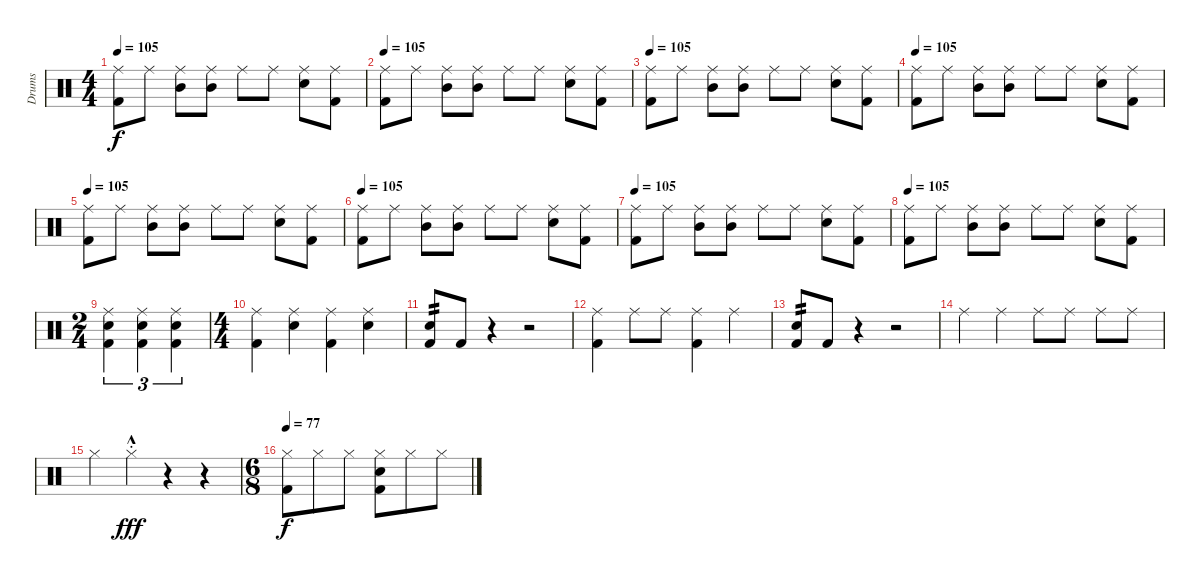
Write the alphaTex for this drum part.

\track ("Drums" "Drums") {instrument percussion}
\staff {score}
\articulation defaults
\ts (4 4)
\tempo 105
\clef neutral
\ks c
("Ride (middle)" "Kick (hit) 2").8{dy f} "Ride (middle)".8 ("Ride (middle)" "Mid Tom (hit)").8 ("Ride (middle)" "Mid Tom (hit)").8 "Ride (middle)".8 "Ride (middle)".8 ("Ride (middle)" "Snare (hit) 2").8 ("Ride (middle)" "Kick (hit) 2").8 |
\tempo 105
("Ride (middle)" "Kick (hit) 2").8 "Ride (middle)".8 ("Ride (middle)" "Mid Tom (hit)").8 ("Ride (middle)" "Mid Tom (hit)").8 "Ride (middle)".8 "Ride (middle)".8 ("Ride (middle)" "Snare (hit) 2").8 ("Ride (middle)" "Kick (hit) 2").8 |
\tempo 105
("Ride (middle)" "Kick (hit) 2").8 "Ride (middle)".8 ("Ride (middle)" "Mid Tom (hit)").8 ("Ride (middle)" "Mid Tom (hit)").8 "Ride (middle)".8 "Ride (middle)".8 ("Ride (middle)" "Snare (hit) 2").8 ("Ride (middle)" "Kick (hit) 2").8 |
\tempo 105
("Ride (middle)" "Kick (hit) 2").8 "Ride (middle)".8 ("Ride (middle)" "Mid Tom (hit)").8 ("Ride (middle)" "Mid Tom (hit)").8 "Ride (middle)".8 "Ride (middle)".8 ("Ride (middle)" "Snare (hit) 2").8 ("Ride (middle)" "Kick (hit) 2").8 |
\tempo 105
("Ride (middle)" "Kick (hit) 2").8 "Ride (middle)".8 ("Ride (middle)" "Mid Tom (hit)").8 ("Ride (middle)" "Mid Tom (hit)").8 "Ride (middle)".8 "Ride (middle)".8 ("Ride (middle)" "Snare (hit) 2").8 ("Ride (middle)" "Kick (hit) 2").8 |
\tempo 105
("Ride (middle)" "Kick (hit) 2").8 "Ride (middle)".8 ("Ride (middle)" "Mid Tom (hit)").8 ("Ride (middle)" "Mid Tom (hit)").8 "Ride (middle)".8 "Ride (middle)".8 ("Ride (middle)" "Snare (hit) 2").8 ("Ride (middle)" "Kick (hit) 2").8 |
\tempo 105
("Ride (middle)" "Kick (hit) 2").8 "Ride (middle)".8 ("Ride (middle)" "Mid Tom (hit)").8 ("Ride (middle)" "Mid Tom (hit)").8 "Ride (middle)".8 "Ride (middle)".8 ("Ride (middle)" "Snare (hit) 2").8 ("Ride (middle)" "Kick (hit) 2").8 |
\tempo 105
("Ride (middle)" "Kick (hit) 2").8 "Ride (middle)".8 ("Ride (middle)" "Mid Tom (hit)").8 ("Ride (middle)" "Mid Tom (hit)").8 "Ride (middle)".8 "Ride (middle)".8 ("Ride (middle)" "Snare (hit) 2").8 ("Ride (middle)" "Kick (hit) 2").8 |
\ts (2 4)
("Ride (middle)" "Snare (hit) 2" "Kick (hit) 2").4{tu (3 2)} ("Ride (middle)" "Snare (hit) 2" "Kick (hit) 2").4{tu (3 2)} ("Ride (middle)" "Snare (hit) 2" "Kick (hit) 2").4{tu (3 2)} |
\ts (4 4)
("Ride (middle)" "Kick (hit) 2").4 ("Ride (middle)" "Snare (hit) 2").4 ("Ride (middle)" "Kick (hit) 2").4 ("Ride (middle)" "Snare (hit) 2").4 |
("Snare (hit) 2" "Kick (hit) 2").8{tp 2} "Kick (hit) 2".8 r.4 r.2 |
("Ride (middle)" "Kick (hit) 2").4 "Ride (middle)".8 "Ride (middle)".8 ("Ride (middle)" "Kick (hit) 2").4 "Ride (middle)".4 |
("Snare (hit) 2" "Kick (hit) 2").8{tp 2} "Kick (hit) 2".8 r.4 r.2 |
"Ride (middle)".4 "Ride (middle)".4 "Ride (middle)".8 "Ride (middle)".8 "Ride (middle)".8 "Ride (middle)".8 |
"Hi-Hat (closed)".4 "Hi-Hat (closed)"{hac st}.4{dy fff} r.4 r.4 |
\ts (6 8)
\tempo 77
("Hi-Hat (closed)" "Kick (hit) 2").8{dy f} "Hi-Hat (closed)".8 "Hi-Hat (closed)".8 ("Hi-Hat (closed)" "Snare (hit) 2" "Kick (hit) 2").8 "Hi-Hat (closed)".8 "Hi-Hat (closed)".8
